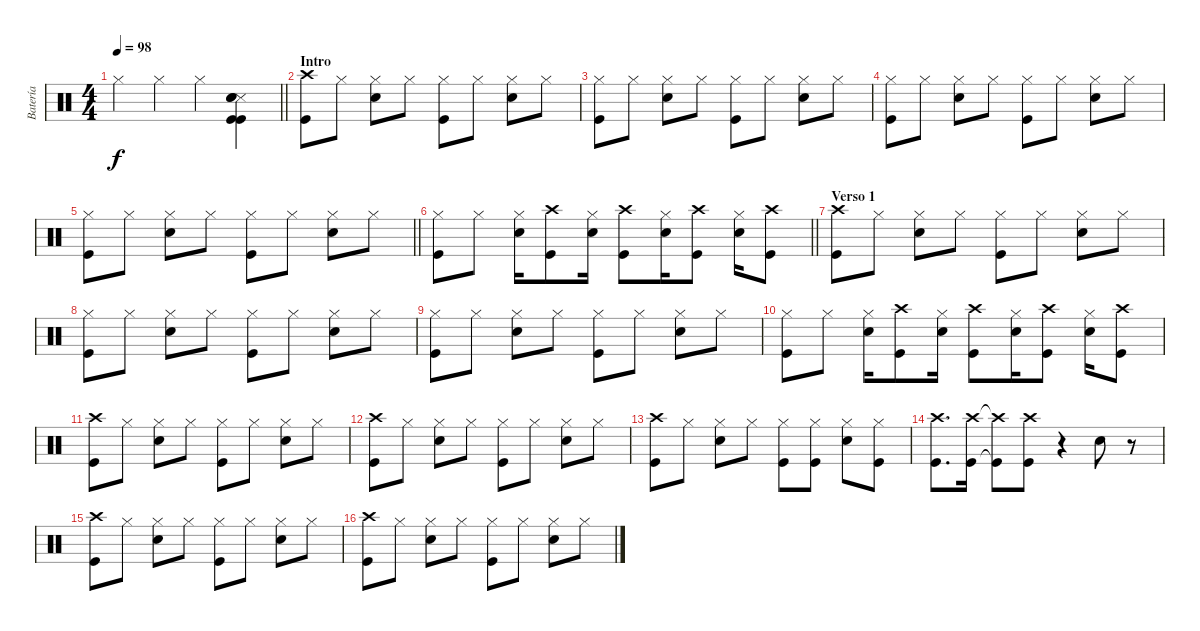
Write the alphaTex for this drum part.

\track ("Batería" "Batería") {instrument percussion}
\staff {score}
\articulation defaults
\ts (4 4)
\tempo 98
\clef neutral
\barLineRight lightlight
\ks c "Hi-Hat (closed)".4{dy f} "Hi-Hat (closed)".4 "Hi-Hat (closed)".4
("Snare (side stick) 3" "Snare (hit) 2" "Kick (hit)" "Kick (hit)" "Electric Snare (hit)").4 |
\section ("" "Intro")
("Crash high (hit)" "Kick (hit)").8 "Hi-Hat (closed)".8 ("Hi-Hat (closed)" "Electric Snare (hit)").8 "Hi-Hat (closed)".8 ("Hi-Hat (closed)" "Kick (hit)").8 "Hi-Hat (closed)".8 ("Hi-Hat (closed)" "Electric Snare (hit)").8 "Hi-Hat (closed)".8 |
("Hi-Hat (closed)" "Kick (hit)").8 "Hi-Hat (closed)".8 ("Hi-Hat (closed)" "Electric Snare (hit)").8 "Hi-Hat (closed)".8 ("Hi-Hat (closed)" "Kick (hit)").8 "Hi-Hat (closed)".8 ("Hi-Hat (closed)" "Electric Snare (hit)").8 "Hi-Hat (closed)".8 |
("Hi-Hat (closed)" "Kick (hit)").8 "Hi-Hat (closed)".8 ("Hi-Hat (closed)" "Electric Snare (hit)").8 "Hi-Hat (closed)".8 ("Hi-Hat (closed)" "Kick (hit)").8 "Hi-Hat (closed)".8 ("Hi-Hat (closed)" "Electric Snare (hit)").8 "Hi-Hat (closed)".8 |
\barLineRight lightlight
("Hi-Hat (closed)" "Kick (hit)").8 "Hi-Hat (closed)".8 ("Hi-Hat (closed)" "Electric Snare (hit)").8 "Hi-Hat (closed)".8 ("Hi-Hat (closed)" "Kick (hit)").8 "Hi-Hat (closed)".8 ("Hi-Hat (closed)" "Electric Snare (hit)").8 "Hi-Hat (closed)".8 |
\barLineRight lightlight
("Hi-Hat (closed)" "Kick (hit)").8 "Hi-Hat (closed)".8 ("Hi-Hat (closed)" "Electric Snare (hit)").16 ("Crash high (hit)" "Kick (hit)").8 ("Hi-Hat (closed)" "Electric Snare (hit)").16 ("Crash high (hit)" "Kick (hit)").8 ("Hi-Hat (closed)" "Electric Snare (hit)").16 ("Crash high (hit)" "Kick (hit)").8 ("Hi-Hat (closed)" "Electric Snare (hit)").16 ("Crash high (hit)" "Kick (hit)").8 |
\section ("" "Verso 1")
("Crash high (hit)" "Kick (hit)").8 "Hi-Hat (closed)".8 ("Hi-Hat (closed)" "Electric Snare (hit)").8 "Hi-Hat (closed)".8 ("Hi-Hat (closed)" "Kick (hit)").8 "Hi-Hat (closed)".8 ("Hi-Hat (closed)" "Electric Snare (hit)").8 "Hi-Hat (closed)".8 |
("Hi-Hat (closed)" "Kick (hit)").8 "Hi-Hat (closed)".8 ("Hi-Hat (closed)" "Electric Snare (hit)").8 "Hi-Hat (closed)".8 ("Hi-Hat (closed)" "Kick (hit)").8 "Hi-Hat (closed)".8 ("Hi-Hat (closed)" "Electric Snare (hit)").8 "Hi-Hat (closed)".8 |
("Hi-Hat (closed)" "Kick (hit)").8 "Hi-Hat (closed)".8 ("Hi-Hat (closed)" "Electric Snare (hit)").8 "Hi-Hat (closed)".8 ("Hi-Hat (closed)" "Kick (hit)").8 "Hi-Hat (closed)".8 ("Hi-Hat (closed)" "Electric Snare (hit)").8 "Hi-Hat (closed)".8 |
("Hi-Hat (closed)" "Kick (hit)").8 "Hi-Hat (closed)".8 ("Hi-Hat (closed)" "Electric Snare (hit)").16 ("Crash high (hit)" "Kick (hit)").8 ("Hi-Hat (closed)" "Electric Snare (hit)").16 ("Crash high (hit)" "Kick (hit)").8 ("Hi-Hat (closed)" "Electric Snare (hit)").16 ("Crash high (hit)" "Kick (hit)").8 ("Hi-Hat (closed)" "Electric Snare (hit)").16 ("Crash high (hit)" "Kick (hit)").8 |
("Crash high (hit)" "Kick (hit)").8 "Hi-Hat (closed)".8 ("Hi-Hat (closed)" "Electric Snare (hit)").8 "Hi-Hat (closed)".8 ("Hi-Hat (closed)" "Kick (hit)").8 "Hi-Hat (closed)".8 ("Hi-Hat (closed)" "Electric Snare (hit)").8 "Hi-Hat (closed)".8 |
("Crash high (hit)" "Kick (hit)").8 "Hi-Hat (closed)".8 ("Hi-Hat (closed)" "Electric Snare (hit)").8 "Hi-Hat (closed)".8 ("Hi-Hat (closed)" "Kick (hit)").8 "Hi-Hat (closed)".8 ("Hi-Hat (closed)" "Electric Snare (hit)").8 "Hi-Hat (closed)".8 |
("Crash high (hit)" "Kick (hit)").8 "Hi-Hat (closed)".8 ("Hi-Hat (closed)" "Electric Snare (hit)").8 "Hi-Hat (closed)".8 ("Hi-Hat (closed)" "Kick (hit)").8 ("Hi-Hat (closed)" "Kick (hit)").8 ("Hi-Hat (closed)" "Electric Snare (hit)").8 ("Hi-Hat (closed)" "Kick (hit)").8 |
("Crash high (hit)" "Kick (hit)").8{d} ("Crash high (hit)" "Kick (hit)").16 ("Crash high (hit)"{t} "Kick (hit)"{t}).8 ("Crash high (hit)" "Kick (hit)").8 r.4 "Electric Snare (hit)".8 r.8 |
("Crash high (hit)" "Kick (hit)").8 "Hi-Hat (closed)".8 ("Hi-Hat (closed)" "Electric Snare (hit)").8 "Hi-Hat (closed)".8 ("Hi-Hat (closed)" "Kick (hit)").8 "Hi-Hat (closed)".8 ("Hi-Hat (closed)" "Electric Snare (hit)").8 "Hi-Hat (closed)".8 |
("Crash high (hit)" "Kick (hit)").8 "Hi-Hat (closed)".8 ("Hi-Hat (closed)" "Electric Snare (hit)").8 "Hi-Hat (closed)".8 ("Hi-Hat (closed)" "Kick (hit)").8 "Hi-Hat (closed)".8 ("Hi-Hat (closed)" "Electric Snare (hit)").8 "Hi-Hat (closed)".8
